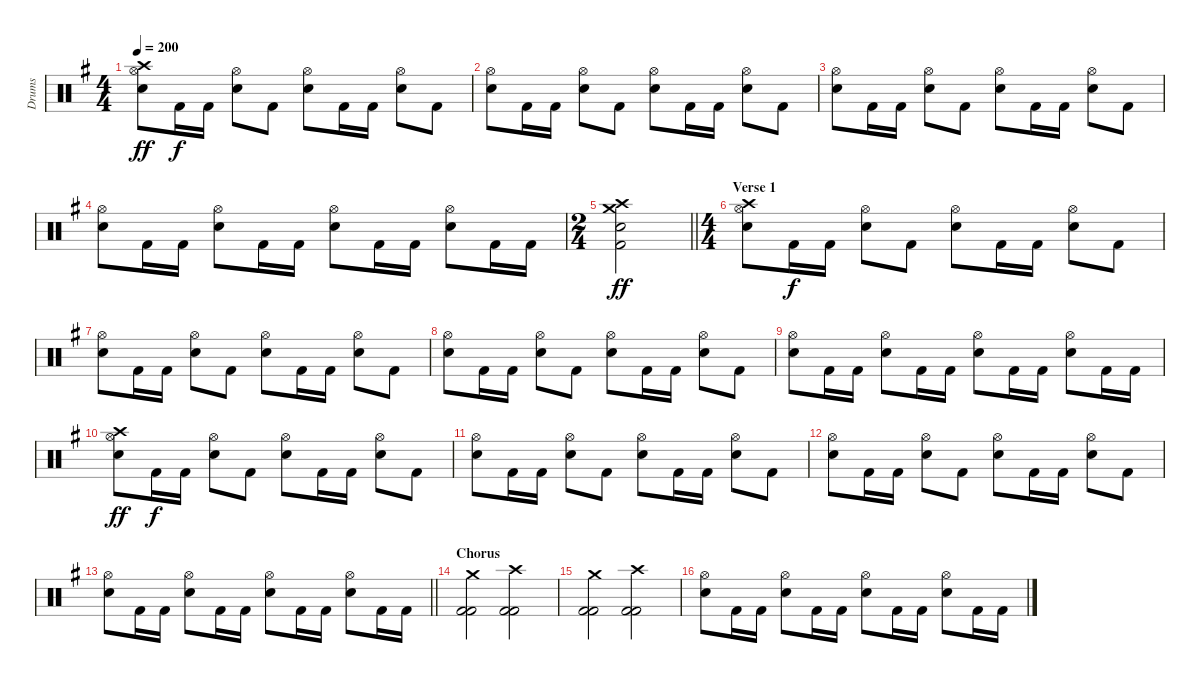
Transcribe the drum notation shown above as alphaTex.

\track ("Drums" "Drums") {instrument percussion}
\staff {score}
\articulation defaults
\ts (4 4)
\tempo 200
\clef neutral
\ks eminor
("Crash high (hit)" "Hi-Hat (open)" "Snare (hit) 2").8{dy ff} "Kick (hit) 2".16{dy f} "Kick (hit) 2".16 ("Hi-Hat (open)" "Snare (hit) 2").8 "Kick (hit) 2".8 ("Hi-Hat (open)" "Snare (hit) 2").8 "Kick (hit) 2".16 "Kick (hit) 2".16 ("Hi-Hat (open)" "Snare (hit) 2").8 "Kick (hit) 2".8 |
("Hi-Hat (open)" "Snare (hit) 2").8 "Kick (hit) 2".16 "Kick (hit) 2".16 ("Hi-Hat (open)" "Snare (hit) 2").8 "Kick (hit) 2".8 ("Hi-Hat (open)" "Snare (hit) 2").8 "Kick (hit) 2".16 "Kick (hit) 2".16 ("Hi-Hat (open)" "Snare (hit) 2").8 "Kick (hit) 2".8 |
("Hi-Hat (open)" "Snare (hit) 2").8 "Kick (hit) 2".16 "Kick (hit) 2".16 ("Hi-Hat (open)" "Snare (hit) 2").8 "Kick (hit) 2".8 ("Hi-Hat (open)" "Snare (hit) 2").8 "Kick (hit) 2".16 "Kick (hit) 2".16 ("Hi-Hat (open)" "Snare (hit) 2").8 "Kick (hit) 2".8 |
("Hi-Hat (open)" "Snare (hit) 2").8 "Kick (hit) 2".16 "Kick (hit) 2".16 ("Hi-Hat (open)" "Snare (hit) 2").8 "Kick (hit) 2".16 "Kick (hit) 2".16 ("Hi-Hat (open)" "Snare (hit) 2").8 "Kick (hit) 2".16 "Kick (hit) 2".16 ("Hi-Hat (open)" "Snare (hit) 2").8 "Kick (hit) 2".16 "Kick (hit) 2".16 |
\ts (2 4)
\barLineRight lightlight
("Kick (hit) 2" "Electric Snare (hit)" "Crash high (hit)" "Crash medium (hit)").2{dy ff} |
\ts (4 4)
\section ("" "Verse 1")
("Crash high (hit)" "Hi-Hat (open)" "Snare (hit) 2").8 "Kick (hit) 2".16{dy f} "Kick (hit) 2".16 ("Hi-Hat (open)" "Snare (hit) 2").8 "Kick (hit) 2".8 ("Hi-Hat (open)" "Snare (hit) 2").8 "Kick (hit) 2".16 "Kick (hit) 2".16 ("Hi-Hat (open)" "Snare (hit) 2").8 "Kick (hit) 2".8 |
("Hi-Hat (open)" "Snare (hit) 2").8 "Kick (hit) 2".16 "Kick (hit) 2".16 ("Hi-Hat (open)" "Snare (hit) 2").8 "Kick (hit) 2".8 ("Hi-Hat (open)" "Snare (hit) 2").8 "Kick (hit) 2".16 "Kick (hit) 2".16 ("Hi-Hat (open)" "Snare (hit) 2").8 "Kick (hit) 2".8 |
("Hi-Hat (open)" "Snare (hit) 2").8 "Kick (hit) 2".16 "Kick (hit) 2".16 ("Hi-Hat (open)" "Snare (hit) 2").8 "Kick (hit) 2".8 ("Hi-Hat (open)" "Snare (hit) 2").8 "Kick (hit) 2".16 "Kick (hit) 2".16 ("Hi-Hat (open)" "Snare (hit) 2").8 "Kick (hit) 2".8 |
("Hi-Hat (open)" "Snare (hit) 2").8 "Kick (hit) 2".16 "Kick (hit) 2".16 ("Hi-Hat (open)" "Snare (hit) 2").8 "Kick (hit) 2".16 "Kick (hit) 2".16 ("Hi-Hat (open)" "Snare (hit) 2").8 "Kick (hit) 2".16 "Kick (hit) 2".16 ("Hi-Hat (open)" "Snare (hit) 2").8 "Kick (hit) 2".16 "Kick (hit) 2".16 |
("Crash high (hit)" "Hi-Hat (open)" "Snare (hit) 2").8{dy ff} "Kick (hit) 2".16{dy f} "Kick (hit) 2".16 ("Hi-Hat (open)" "Snare (hit) 2").8 "Kick (hit) 2".8 ("Hi-Hat (open)" "Snare (hit) 2").8 "Kick (hit) 2".16 "Kick (hit) 2".16 ("Hi-Hat (open)" "Snare (hit) 2").8 "Kick (hit) 2".8 |
("Hi-Hat (open)" "Snare (hit) 2").8 "Kick (hit) 2".16 "Kick (hit) 2".16 ("Hi-Hat (open)" "Snare (hit) 2").8 "Kick (hit) 2".8 ("Hi-Hat (open)" "Snare (hit) 2").8 "Kick (hit) 2".16 "Kick (hit) 2".16 ("Hi-Hat (open)" "Snare (hit) 2").8 "Kick (hit) 2".8 |
("Hi-Hat (open)" "Snare (hit) 2").8 "Kick (hit) 2".16 "Kick (hit) 2".16 ("Hi-Hat (open)" "Snare (hit) 2").8 "Kick (hit) 2".8 ("Hi-Hat (open)" "Snare (hit) 2").8 "Kick (hit) 2".16 "Kick (hit) 2".16 ("Hi-Hat (open)" "Snare (hit) 2").8 "Kick (hit) 2".8 |
\barLineRight lightlight
("Hi-Hat (open)" "Snare (hit) 2").8 "Kick (hit) 2".16 "Kick (hit) 2".16 ("Hi-Hat (open)" "Snare (hit) 2").8 "Kick (hit) 2".16 "Kick (hit) 2".16 ("Hi-Hat (open)" "Snare (hit) 2").8 "Kick (hit) 2".16 "Kick (hit) 2".16 ("Hi-Hat (open)" "Snare (hit) 2").8 "Kick (hit) 2".16 "Kick (hit) 2".16 |
\section ("" "Chorus")
("Kick (hit) 2" "Kick (hit) 2" "Crash medium (hit)").2 ("Kick (hit) 2" "Kick (hit) 2" "Crash high (hit)").2 |
("Kick (hit) 2" "Kick (hit) 2" "Crash medium (hit)").2 ("Kick (hit) 2" "Kick (hit) 2" "Crash high (hit)").2 |
("Hi-Hat (open)" "Snare (hit) 2").8 "Kick (hit) 2".16 "Kick (hit) 2".16 ("Hi-Hat (open)" "Snare (hit) 2").8 "Kick (hit) 2".16 "Kick (hit) 2".16 ("Hi-Hat (open)" "Snare (hit) 2").8 "Kick (hit) 2".16 "Kick (hit) 2".16 ("Hi-Hat (open)" "Snare (hit) 2").8 "Kick (hit) 2".16 "Kick (hit) 2".16
